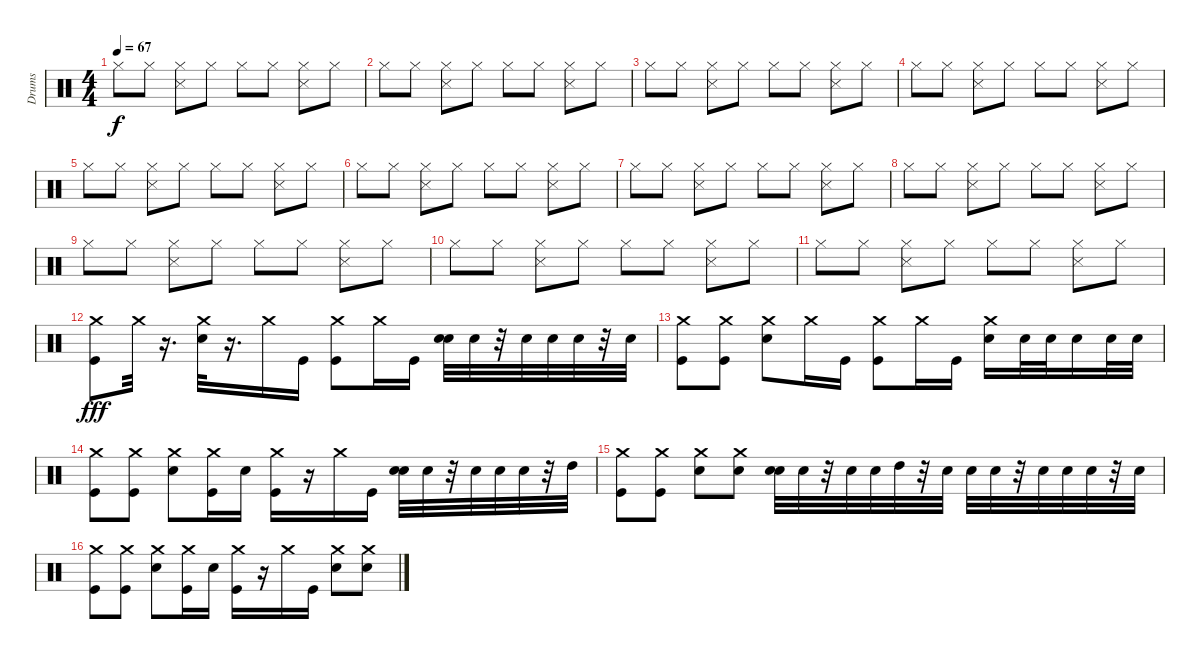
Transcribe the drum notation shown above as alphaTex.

\track ("Drums" "Drums") {instrument percussion}
\staff {score}
\articulation defaults
\ts (4 4)
\tempo 67
\clef neutral
\ks c "Hi-Hat (closed)".8{dy f} "Hi-Hat (closed)".8
("Snare (side stick) 3" "Hi-Hat (closed)").8 "Hi-Hat (closed)".8 "Hi-Hat (closed)".8 "Hi-Hat (closed)".8 ("Snare (side stick) 3" "Hi-Hat (closed)").8 "Hi-Hat (closed)".8 |
"Hi-Hat (closed)".8 "Hi-Hat (closed)".8 ("Snare (side stick) 3" "Hi-Hat (closed)").8 "Hi-Hat (closed)".8 "Hi-Hat (closed)".8 "Hi-Hat (closed)".8 ("Snare (side stick) 3" "Hi-Hat (closed)").8 "Hi-Hat (closed)".8 |
"Hi-Hat (closed)".8 "Hi-Hat (closed)".8 ("Snare (side stick) 3" "Hi-Hat (closed)").8 "Hi-Hat (closed)".8 "Hi-Hat (closed)".8 "Hi-Hat (closed)".8 ("Snare (side stick) 3" "Hi-Hat (closed)").8 "Hi-Hat (closed)".8 |
"Hi-Hat (closed)".8 "Hi-Hat (closed)".8 ("Snare (side stick) 3" "Hi-Hat (closed)").8 "Hi-Hat (closed)".8 "Hi-Hat (closed)".8 "Hi-Hat (closed)".8 ("Snare (side stick) 3" "Hi-Hat (closed)").8 "Hi-Hat (closed)".8 |
"Hi-Hat (closed)".8 "Hi-Hat (closed)".8 ("Snare (side stick) 3" "Hi-Hat (closed)").8 "Hi-Hat (closed)".8 "Hi-Hat (closed)".8 "Hi-Hat (closed)".8 ("Snare (side stick) 3" "Hi-Hat (closed)").8 "Hi-Hat (closed)".8 |
"Hi-Hat (closed)".8 "Hi-Hat (closed)".8 ("Snare (side stick) 3" "Hi-Hat (closed)").8 "Hi-Hat (closed)".8 "Hi-Hat (closed)".8 "Hi-Hat (closed)".8 ("Snare (side stick) 3" "Hi-Hat (closed)").8 "Hi-Hat (closed)".8 |
"Hi-Hat (closed)".8 "Hi-Hat (closed)".8 ("Snare (side stick) 3" "Hi-Hat (closed)").8 "Hi-Hat (closed)".8 "Hi-Hat (closed)".8 "Hi-Hat (closed)".8 ("Snare (side stick) 3" "Hi-Hat (closed)").8 "Hi-Hat (closed)".8 |
"Hi-Hat (closed)".8 "Hi-Hat (closed)".8 ("Snare (side stick) 3" "Hi-Hat (closed)").8 "Hi-Hat (closed)".8 "Hi-Hat (closed)".8 "Hi-Hat (closed)".8 ("Snare (side stick) 3" "Hi-Hat (closed)").8 "Hi-Hat (closed)".8 |
"Hi-Hat (closed)".8 "Hi-Hat (closed)".8 ("Snare (side stick) 3" "Hi-Hat (closed)").8 "Hi-Hat (closed)".8 "Hi-Hat (closed)".8 "Hi-Hat (closed)".8 ("Snare (side stick) 3" "Hi-Hat (closed)").8 "Hi-Hat (closed)".8 |
"Hi-Hat (closed)".8 "Hi-Hat (closed)".8 ("Snare (side stick) 3" "Hi-Hat (closed)").8 "Hi-Hat (closed)".8 "Hi-Hat (closed)".8 "Hi-Hat (closed)".8 ("Snare (side stick) 3" "Hi-Hat (closed)").8 "Hi-Hat (closed)".8 |
"Hi-Hat (closed)".8 "Hi-Hat (closed)".8 ("Snare (side stick) 3" "Hi-Hat (closed)").8 "Hi-Hat (closed)".8 "Hi-Hat (closed)".8 "Hi-Hat (closed)".8 ("Snare (side stick) 3" "Hi-Hat (closed)").8 "Hi-Hat (closed)".8 |
("Kick (hit)" "Crash medium (hit)").8{dy fff} "Crash medium (hit)".32 r.16{d} ("Snare (hit) 2" "Crash medium (hit)").32 r.16{d} "Crash medium (hit)".16 "Kick (hit)".16 ("Kick (hit)" "Crash medium (hit)").8 "Crash medium (hit)".16 "Kick (hit)".16 ("Snare (hit) 2" "Snare (hit) 2").32 "Snare (hit) 2".32 r.32 "Snare (hit) 2".32 "Snare (hit) 2".32 "Snare (hit) 2".32 r.32 "Snare (hit) 2".32 |
("Crash medium (hit)" "Kick (hit)").8 ("Crash medium (hit)" "Kick (hit)").8 ("Snare (hit) 2" "Crash medium (hit)").8 "Crash medium (hit)".16 "Kick (hit)".16 ("Kick (hit)" "Crash medium (hit)").8 "Crash medium (hit)".16 "Kick (hit)".16 ("Crash medium (hit)" "Snare (hit) 2").16 "Snare (hit) 2".32 "Snare (hit) 2".32 "Snare (hit) 2".16 "Snare (hit) 2".32 "Snare (hit) 2".32 |
("Crash medium (hit)" "Kick (hit)").8 ("Crash medium (hit)" "Kick (hit)").8 ("Crash medium (hit)" "Snare (hit) 2").8 ("Crash medium (hit)" "Kick (hit)").16 "Snare (hit) 2".16 ("Crash medium (hit)" "Kick (hit)").16 r.16 "Crash medium (hit)".16 "Kick (hit)".16 ("Snare (hit) 2" "Snare (hit) 2").32 "Snare (hit) 2".32 r.32 "Snare (hit) 2".32 "Snare (hit) 2".32 "Snare (hit) 2".32 r.32 "High Tom (hit)".32 |
("Crash medium (hit)" "Kick (hit)").8 ("Crash medium (hit)" "Kick (hit)").8 ("Snare (hit) 2" "Crash medium (hit)").8 ("Crash medium (hit)" "Snare (hit) 2").8 ("Snare (hit) 2" "Snare (hit) 2").32 "Snare (hit) 2".32 r.32 "Snare (hit) 2".32 "Snare (hit) 2".32 "High Tom (hit)".32 r.32 "Snare (hit) 2".32 "Snare (hit) 2".32 "Snare (hit) 2".32 r.32 "Snare (hit) 2".32 "Snare (hit) 2".32 "Snare (hit) 2".32 r.32 "Snare (hit) 2".32 |
("Crash medium (hit)" "Kick (hit)").8 ("Crash medium (hit)" "Kick (hit)").8 ("Snare (hit) 2" "Crash medium (hit)").8 ("Crash medium (hit)" "Kick (hit)").16 "Snare (hit) 2".16 ("Kick (hit)" "Crash medium (hit)").16 r.16 "Crash medium (hit)".16 "Kick (hit)".16 ("Crash medium (hit)" "Snare (hit) 2").8 ("Crash medium (hit)" "Snare (hit) 2").8
